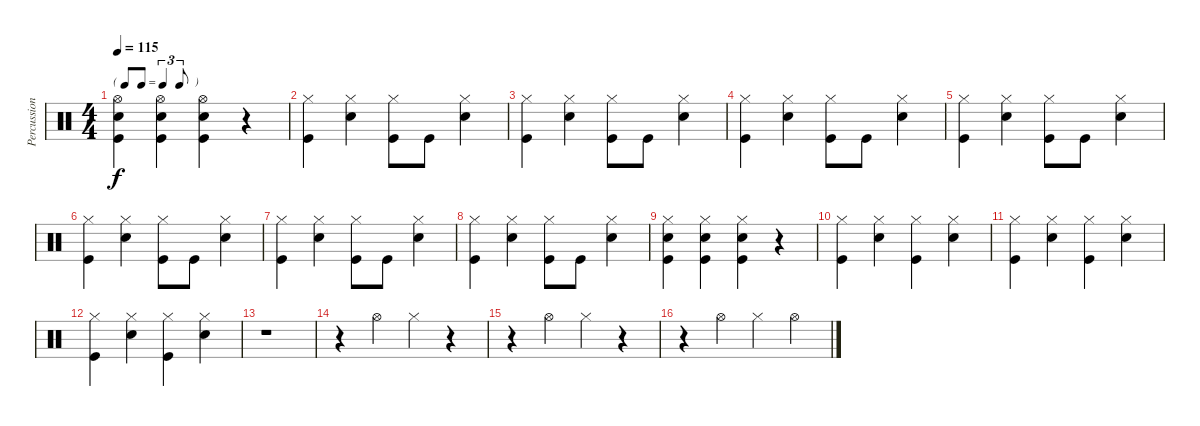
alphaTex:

\track ("Percussion" "Percussion") {instrument percussion}
\staff {score}
\articulation defaults
\ts (4 4)
\tf triplet8th
\tempo 115
\clef neutral
\ks c
("Hi-Hat (open)" "Snare (hit) 2" "Kick (hit)").4{dy f} ("Hi-Hat (open)" "Snare (hit) 2" "Kick (hit)").4 ("Hi-Hat (open)" "Snare (hit) 2" "Kick (hit)").4 r.4 |
("Hi-Hat (closed)" "Kick (hit)").4 ("Hi-Hat (closed)" "Snare (hit) 2").4 ("Hi-Hat (closed)" "Kick (hit)").8 "Kick (hit)".8 ("Hi-Hat (closed)" "Snare (hit) 2").4 |
("Hi-Hat (closed)" "Kick (hit)").4 ("Hi-Hat (closed)" "Snare (hit) 2").4 ("Hi-Hat (closed)" "Kick (hit)").8 "Kick (hit)".8 ("Hi-Hat (closed)" "Snare (hit) 2").4 |
("Hi-Hat (closed)" "Kick (hit)").4 ("Hi-Hat (closed)" "Snare (hit) 2").4 ("Hi-Hat (closed)" "Kick (hit)").8 "Kick (hit)".8 ("Hi-Hat (closed)" "Snare (hit) 2").4 |
("Hi-Hat (closed)" "Kick (hit)").4 ("Hi-Hat (closed)" "Snare (hit) 2").4 ("Hi-Hat (closed)" "Kick (hit)").8 "Kick (hit)".8 ("Hi-Hat (closed)" "Snare (hit) 2").4 |
("Hi-Hat (closed)" "Kick (hit)").4 ("Hi-Hat (closed)" "Snare (hit) 2").4 ("Hi-Hat (closed)" "Kick (hit)").8 "Kick (hit)".8 ("Hi-Hat (closed)" "Snare (hit) 2").4 |
("Hi-Hat (closed)" "Kick (hit)").4 ("Hi-Hat (closed)" "Snare (hit) 2").4 ("Hi-Hat (closed)" "Kick (hit)").8 "Kick (hit)".8 ("Hi-Hat (closed)" "Snare (hit) 2").4 |
("Hi-Hat (closed)" "Kick (hit)").4 ("Hi-Hat (closed)" "Snare (hit) 2").4 ("Hi-Hat (closed)" "Kick (hit)").8 "Kick (hit)".8 ("Hi-Hat (closed)" "Snare (hit) 2").4 |
("Hi-Hat (closed)" "Snare (hit) 2" "Kick (hit)").4 ("Hi-Hat (closed)" "Snare (hit) 2" "Kick (hit)").4 ("Hi-Hat (closed)" "Snare (hit) 2" "Kick (hit)").4 r.4 |
("Hi-Hat (closed)" "Kick (hit)").4 ("Hi-Hat (closed)" "Snare (hit) 2").4 ("Hi-Hat (closed)" "Kick (hit)").4 ("Hi-Hat (closed)" "Snare (hit) 2").4 |
("Hi-Hat (closed)" "Kick (hit)").4 ("Hi-Hat (closed)" "Snare (hit) 2").4 ("Hi-Hat (closed)" "Kick (hit)").4 ("Hi-Hat (closed)" "Snare (hit) 2").4 |
("Hi-Hat (closed)" "Kick (hit)").4 ("Hi-Hat (closed)" "Snare (hit) 2").4 ("Hi-Hat (closed)" "Kick (hit)").4 ("Hi-Hat (closed)" "Snare (hit) 2").4 |
r.1 |
r.4 "Hi-Hat (open)".4 "Hi-Hat (closed)".4 r.4 |
r.4 "Hi-Hat (open)".4 "Hi-Hat (closed)".4 r.4 |
r.4 "Hi-Hat (open)".4 "Hi-Hat (closed)".4 "Hi-Hat (open)".4
